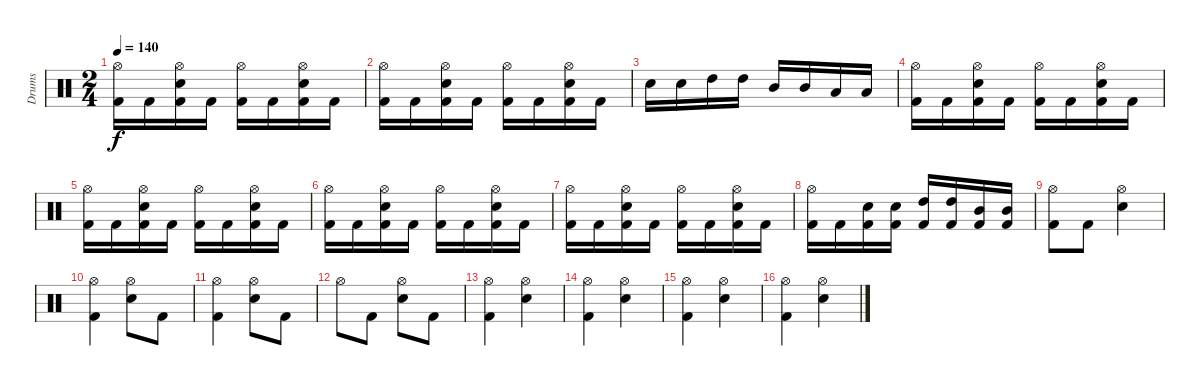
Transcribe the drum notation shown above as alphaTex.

\track ("Drums" "Drums") {instrument percussion}
\staff {score}
\articulation defaults
\ts (2 4)
\tempo 140
\clef neutral
\ks c
("Kick (hit) 2" "Hi-Hat (open)").16{dy f} "Kick (hit) 2".16 ("Kick (hit) 2" "Electric Snare (hit)" "Hi-Hat (open)").16 "Kick (hit) 2".16 ("Kick (hit) 2" "Hi-Hat (open)").16 "Kick (hit) 2".16 ("Kick (hit) 2" "Electric Snare (hit)" "Hi-Hat (open)").16 "Kick (hit) 2".16 |
("Kick (hit) 2" "Hi-Hat (open)").16 "Kick (hit) 2".16 ("Kick (hit) 2" "Electric Snare (hit)" "Hi-Hat (open)").16 "Kick (hit) 2".16 ("Kick (hit) 2" "Hi-Hat (open)").16 "Kick (hit) 2".16 ("Kick (hit) 2" "Electric Snare (hit)" "Hi-Hat (open)").16 "Kick (hit) 2".16 |
"Electric Snare (hit)".16 "Electric Snare (hit)".16 "High Tom (hit)".16 "High Tom (hit)".16 "Mid Tom (hit)".16 "Mid Tom (hit)".16 "Low Tom (hit)".16 "Low Tom (hit)".16 |
("Kick (hit) 2" "Hi-Hat (open)").16 "Kick (hit) 2".16 ("Kick (hit) 2" "Electric Snare (hit)" "Hi-Hat (open)").16 "Kick (hit) 2".16 ("Kick (hit) 2" "Hi-Hat (open)").16 "Kick (hit) 2".16 ("Kick (hit) 2" "Electric Snare (hit)" "Hi-Hat (open)").16 "Kick (hit) 2".16 |
("Kick (hit) 2" "Hi-Hat (open)").16 "Kick (hit) 2".16 ("Kick (hit) 2" "Electric Snare (hit)" "Hi-Hat (open)").16 "Kick (hit) 2".16 ("Kick (hit) 2" "Hi-Hat (open)").16 "Kick (hit) 2".16 ("Kick (hit) 2" "Electric Snare (hit)" "Hi-Hat (open)").16 "Kick (hit) 2".16 |
("Kick (hit) 2" "Hi-Hat (open)").16 "Kick (hit) 2".16 ("Kick (hit) 2" "Electric Snare (hit)" "Hi-Hat (open)").16 "Kick (hit) 2".16 ("Kick (hit) 2" "Hi-Hat (open)").16 "Kick (hit) 2".16 ("Kick (hit) 2" "Electric Snare (hit)" "Hi-Hat (open)").16 "Kick (hit) 2".16 |
("Kick (hit) 2" "Hi-Hat (open)").16 "Kick (hit) 2".16 ("Kick (hit) 2" "Electric Snare (hit)" "Hi-Hat (open)").16 "Kick (hit) 2".16 ("Kick (hit) 2" "Hi-Hat (open)").16 "Kick (hit) 2".16 ("Kick (hit) 2" "Electric Snare (hit)" "Hi-Hat (open)").16 "Kick (hit) 2".16 |
("Kick (hit) 2" "Hi-Hat (open)").16 "Kick (hit) 2".16 ("Kick (hit) 2" "Electric Snare (hit)").16 ("Kick (hit) 2" "Electric Snare (hit)").16 ("Kick (hit) 2" "High Tom (hit)").16 ("Kick (hit) 2" "High Tom (hit)").16 ("Kick (hit) 2" "Mid Tom (hit)").16 ("Kick (hit) 2" "Mid Tom (hit)").16 |
("Kick (hit) 2" "Hi-Hat (open)").8 "Kick (hit) 2".8 ("Electric Snare (hit)" "Hi-Hat (open)").4 |
("Kick (hit) 2" "Hi-Hat (open)").4 ("Electric Snare (hit)" "Hi-Hat (open)").8 "Kick (hit) 2".8 |
("Kick (hit) 2" "Hi-Hat (open)").4 ("Electric Snare (hit)" "Hi-Hat (open)").8 "Kick (hit) 2".8 |
"Hi-Hat (open)".8 "Kick (hit) 2".8 ("Electric Snare (hit)" "Hi-Hat (open)").8 "Kick (hit) 2".8 |
("Kick (hit) 2" "Hi-Hat (open)").4 ("Electric Snare (hit)" "Hi-Hat (open)").4 |
("Kick (hit) 2" "Hi-Hat (open)").4 ("Electric Snare (hit)" "Hi-Hat (open)").4 |
("Kick (hit) 2" "Hi-Hat (open)").4 ("Electric Snare (hit)" "Hi-Hat (open)").4 |
("Kick (hit) 2" "Hi-Hat (open)").4 ("Electric Snare (hit)" "Hi-Hat (open)").4
